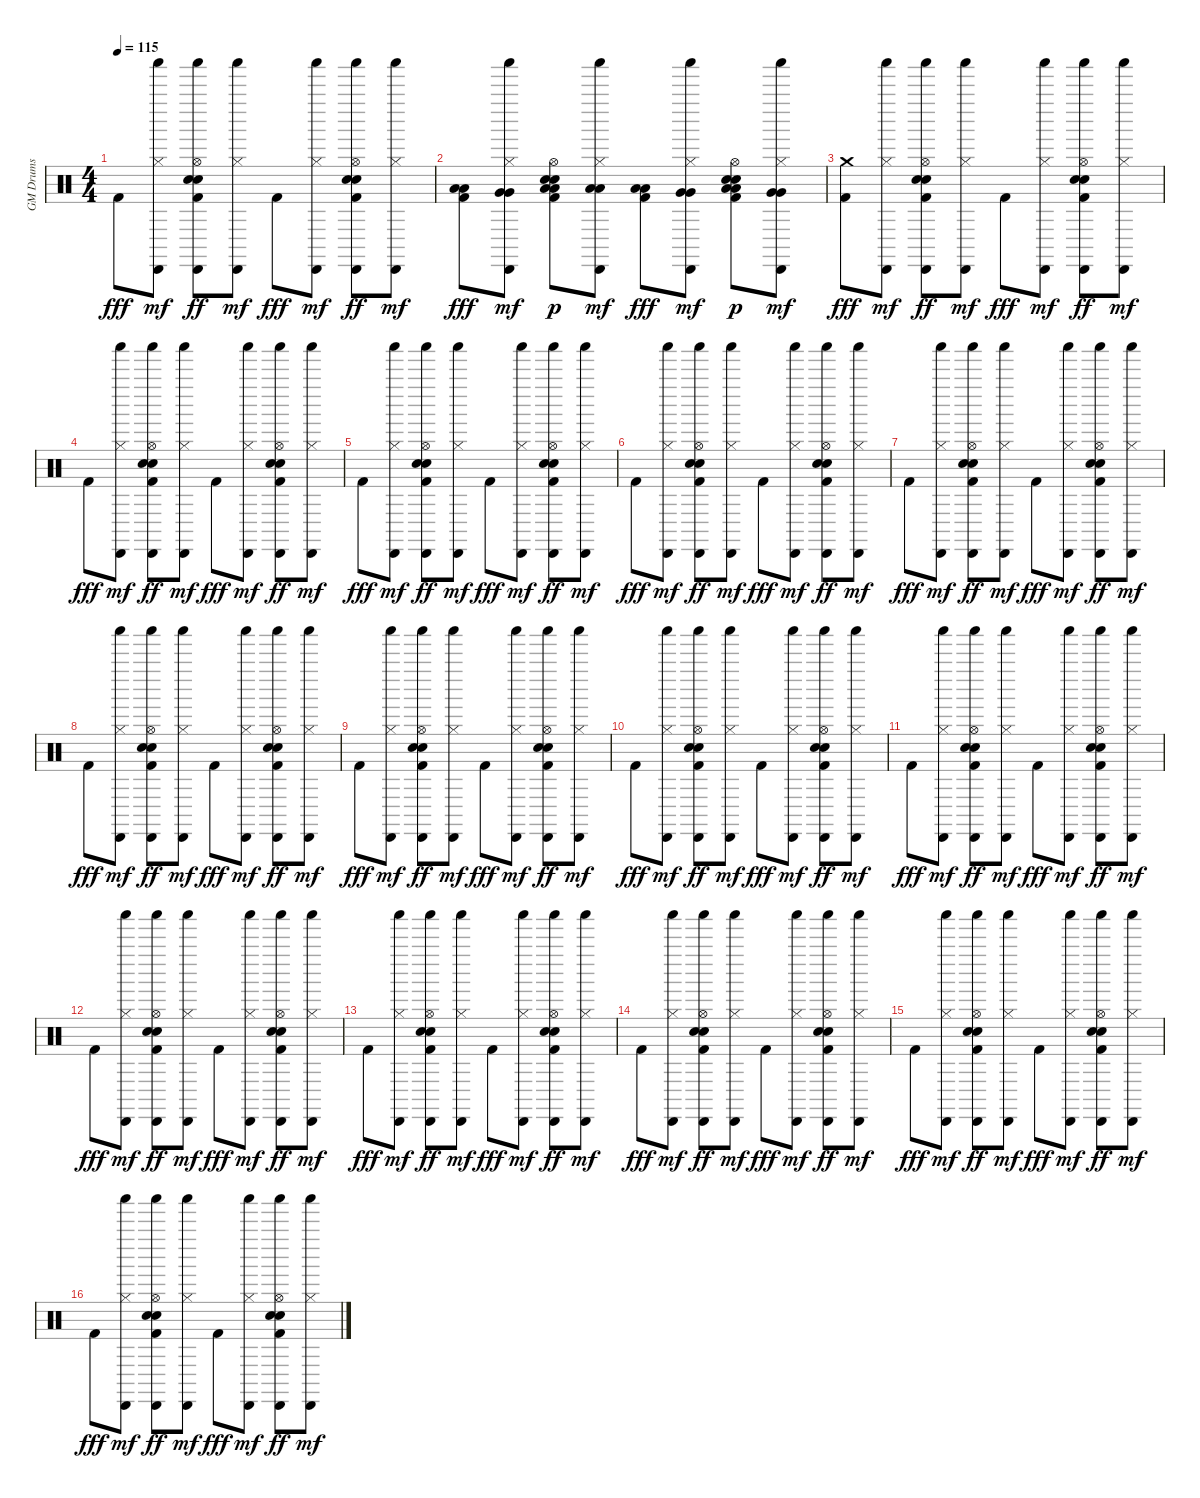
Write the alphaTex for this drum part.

\track ("GM Drums" "GM Drums") {instrument percussion}
\staff {score}
\articulation defaults
\ts (4 4)
\tempo 115
\clef neutral
\ks c "Kick (hit) 2".8{dy fff}
("Hi-Hat (closed)" "Cabasa (hit)" "Shaker (hit)").8{dy mf} ("Kick (hit) 2" "Snare (hit) 2" "Hand Clap (hit)" "Hi-Hat (open)" "Cabasa (hit)" "Shaker (hit)").8{dy ff} ("Hi-Hat (closed)" "Cabasa (hit)" "Shaker (hit)").8{dy mf} "Kick (hit) 2".8{dy fff} ("Hi-Hat (closed)" "Cabasa (hit)" "Shaker (hit)").8{dy mf} ("Kick (hit) 2" "Snare (hit) 2" "Hand Clap (hit)" "Hi-Hat (open)" "Cabasa (hit)" "Shaker (hit)").8{dy ff} ("Hi-Hat (closed)" "Cabasa (hit)" "Shaker (hit)").8{dy mf} |
("Kick (hit) 2" "Low Tom (hit)" "Low Tom (hit)").8{dy fff} ("Hi-Hat (closed)" "Very Low Tom (hit)" "Very Low Tom (hit)" "Cabasa (hit)" "Shaker (hit)").8{dy mf} ("Kick (hit) 2" "Snare (hit) 2" "Hand Clap (hit)" "Low Floor Tom (hit)" "Low Floor Tom (hit)" "Hi-Hat (open)").8{dy p} ("Hi-Hat (closed)" "Low Tom (hit)" "Low Tom (hit)" "Cabasa (hit)" "Shaker (hit)").8{dy mf} ("Kick (hit) 2" "Low Tom (hit)" "Low Tom (hit)").8{dy fff} ("Hi-Hat (closed)" "Very Low Tom (hit)" "Very Low Tom (hit)" "Cabasa (hit)" "Shaker (hit)").8{dy mf} ("Kick (hit) 2" "Snare (hit) 2" "Hand Clap (hit)" "Low Floor Tom (hit)" "Low Floor Tom (hit)" "Hi-Hat (open)").8{dy p} ("Hi-Hat (closed)" "Very Low Tom (hit)" "Very Low Tom (hit)" "Cabasa (hit)" "Shaker (hit)").8{dy mf} |
("Kick (hit) 2" "Crash medium (hit)").8{dy fff} ("Hi-Hat (closed)" "Cabasa (hit)" "Shaker (hit)").8{dy mf} ("Kick (hit) 2" "Snare (hit) 2" "Hand Clap (hit)" "Hi-Hat (open)" "Cabasa (hit)" "Shaker (hit)").8{dy ff} ("Hi-Hat (closed)" "Cabasa (hit)" "Shaker (hit)").8{dy mf} "Kick (hit) 2".8{dy fff} ("Hi-Hat (closed)" "Cabasa (hit)" "Shaker (hit)").8{dy mf} ("Kick (hit) 2" "Snare (hit) 2" "Hand Clap (hit)" "Hi-Hat (open)" "Cabasa (hit)" "Shaker (hit)").8{dy ff} ("Hi-Hat (closed)" "Cabasa (hit)" "Shaker (hit)").8{dy mf} |
"Kick (hit) 2".8{dy fff} ("Hi-Hat (closed)" "Cabasa (hit)" "Shaker (hit)").8{dy mf} ("Kick (hit) 2" "Snare (hit) 2" "Hand Clap (hit)" "Hi-Hat (open)" "Cabasa (hit)" "Shaker (hit)").8{dy ff} ("Hi-Hat (closed)" "Cabasa (hit)" "Shaker (hit)").8{dy mf} "Kick (hit) 2".8{dy fff} ("Hi-Hat (closed)" "Cabasa (hit)" "Shaker (hit)").8{dy mf} ("Kick (hit) 2" "Snare (hit) 2" "Hand Clap (hit)" "Hi-Hat (open)" "Cabasa (hit)" "Shaker (hit)").8{dy ff} ("Hi-Hat (closed)" "Cabasa (hit)" "Shaker (hit)").8{dy mf} |
"Kick (hit) 2".8{dy fff} ("Hi-Hat (closed)" "Cabasa (hit)" "Shaker (hit)").8{dy mf} ("Kick (hit) 2" "Snare (hit) 2" "Hand Clap (hit)" "Hi-Hat (open)" "Cabasa (hit)" "Shaker (hit)").8{dy ff} ("Hi-Hat (closed)" "Cabasa (hit)" "Shaker (hit)").8{dy mf} "Kick (hit) 2".8{dy fff} ("Hi-Hat (closed)" "Cabasa (hit)" "Shaker (hit)").8{dy mf} ("Kick (hit) 2" "Snare (hit) 2" "Hand Clap (hit)" "Hi-Hat (open)" "Cabasa (hit)" "Shaker (hit)").8{dy ff} ("Hi-Hat (closed)" "Cabasa (hit)" "Shaker (hit)").8{dy mf} |
"Kick (hit) 2".8{dy fff} ("Hi-Hat (closed)" "Cabasa (hit)" "Shaker (hit)").8{dy mf} ("Kick (hit) 2" "Snare (hit) 2" "Hand Clap (hit)" "Hi-Hat (open)" "Cabasa (hit)" "Shaker (hit)").8{dy ff} ("Hi-Hat (closed)" "Cabasa (hit)" "Shaker (hit)").8{dy mf} "Kick (hit) 2".8{dy fff} ("Hi-Hat (closed)" "Cabasa (hit)" "Shaker (hit)").8{dy mf} ("Kick (hit) 2" "Snare (hit) 2" "Hand Clap (hit)" "Hi-Hat (open)" "Cabasa (hit)" "Shaker (hit)").8{dy ff} ("Hi-Hat (closed)" "Cabasa (hit)" "Shaker (hit)").8{dy mf} |
"Kick (hit) 2".8{dy fff} ("Hi-Hat (closed)" "Cabasa (hit)" "Shaker (hit)").8{dy mf} ("Kick (hit) 2" "Snare (hit) 2" "Hand Clap (hit)" "Hi-Hat (open)" "Cabasa (hit)" "Shaker (hit)").8{dy ff} ("Hi-Hat (closed)" "Cabasa (hit)" "Shaker (hit)").8{dy mf} "Kick (hit) 2".8{dy fff} ("Hi-Hat (closed)" "Cabasa (hit)" "Shaker (hit)").8{dy mf} ("Kick (hit) 2" "Snare (hit) 2" "Hand Clap (hit)" "Hi-Hat (open)" "Cabasa (hit)" "Shaker (hit)").8{dy ff} ("Hi-Hat (closed)" "Cabasa (hit)" "Shaker (hit)").8{dy mf} |
"Kick (hit) 2".8{dy fff} ("Hi-Hat (closed)" "Cabasa (hit)" "Shaker (hit)").8{dy mf} ("Kick (hit) 2" "Snare (hit) 2" "Hand Clap (hit)" "Hi-Hat (open)" "Cabasa (hit)" "Shaker (hit)").8{dy ff} ("Hi-Hat (closed)" "Cabasa (hit)" "Shaker (hit)").8{dy mf} "Kick (hit) 2".8{dy fff} ("Hi-Hat (closed)" "Cabasa (hit)" "Shaker (hit)").8{dy mf} ("Kick (hit) 2" "Snare (hit) 2" "Hand Clap (hit)" "Hi-Hat (open)" "Cabasa (hit)" "Shaker (hit)").8{dy ff} ("Hi-Hat (closed)" "Cabasa (hit)" "Shaker (hit)").8{dy mf} |
"Kick (hit) 2".8{dy fff} ("Hi-Hat (closed)" "Cabasa (hit)" "Shaker (hit)").8{dy mf} ("Kick (hit) 2" "Snare (hit) 2" "Hand Clap (hit)" "Hi-Hat (open)" "Cabasa (hit)" "Shaker (hit)").8{dy ff} ("Hi-Hat (closed)" "Cabasa (hit)" "Shaker (hit)").8{dy mf} "Kick (hit) 2".8{dy fff} ("Hi-Hat (closed)" "Cabasa (hit)" "Shaker (hit)").8{dy mf} ("Kick (hit) 2" "Snare (hit) 2" "Hand Clap (hit)" "Hi-Hat (open)" "Cabasa (hit)" "Shaker (hit)").8{dy ff} ("Hi-Hat (closed)" "Cabasa (hit)" "Shaker (hit)").8{dy mf} |
"Kick (hit) 2".8{dy fff} ("Hi-Hat (closed)" "Cabasa (hit)" "Shaker (hit)").8{dy mf} ("Kick (hit) 2" "Snare (hit) 2" "Hand Clap (hit)" "Hi-Hat (open)" "Cabasa (hit)" "Shaker (hit)").8{dy ff} ("Hi-Hat (closed)" "Cabasa (hit)" "Shaker (hit)").8{dy mf} "Kick (hit) 2".8{dy fff} ("Hi-Hat (closed)" "Cabasa (hit)" "Shaker (hit)").8{dy mf} ("Kick (hit) 2" "Snare (hit) 2" "Hand Clap (hit)" "Hi-Hat (open)" "Cabasa (hit)" "Shaker (hit)").8{dy ff} ("Hi-Hat (closed)" "Cabasa (hit)" "Shaker (hit)").8{dy mf} |
"Kick (hit) 2".8{dy fff} ("Hi-Hat (closed)" "Cabasa (hit)" "Shaker (hit)").8{dy mf} ("Kick (hit) 2" "Snare (hit) 2" "Hand Clap (hit)" "Hi-Hat (open)" "Cabasa (hit)" "Shaker (hit)").8{dy ff} ("Hi-Hat (closed)" "Cabasa (hit)" "Shaker (hit)").8{dy mf} "Kick (hit) 2".8{dy fff} ("Hi-Hat (closed)" "Cabasa (hit)" "Shaker (hit)").8{dy mf} ("Kick (hit) 2" "Snare (hit) 2" "Hand Clap (hit)" "Hi-Hat (open)" "Cabasa (hit)" "Shaker (hit)").8{dy ff} ("Hi-Hat (closed)" "Cabasa (hit)" "Shaker (hit)").8{dy mf} |
"Kick (hit) 2".8{dy fff} ("Hi-Hat (closed)" "Cabasa (hit)" "Shaker (hit)").8{dy mf} ("Kick (hit) 2" "Snare (hit) 2" "Hand Clap (hit)" "Hi-Hat (open)" "Cabasa (hit)" "Shaker (hit)").8{dy ff} ("Hi-Hat (closed)" "Cabasa (hit)" "Shaker (hit)").8{dy mf} "Kick (hit) 2".8{dy fff} ("Hi-Hat (closed)" "Cabasa (hit)" "Shaker (hit)").8{dy mf} ("Kick (hit) 2" "Snare (hit) 2" "Hand Clap (hit)" "Hi-Hat (open)" "Cabasa (hit)" "Shaker (hit)").8{dy ff} ("Hi-Hat (closed)" "Cabasa (hit)" "Shaker (hit)").8{dy mf} |
"Kick (hit) 2".8{dy fff} ("Hi-Hat (closed)" "Cabasa (hit)" "Shaker (hit)").8{dy mf} ("Kick (hit) 2" "Snare (hit) 2" "Hand Clap (hit)" "Hi-Hat (open)" "Cabasa (hit)" "Shaker (hit)").8{dy ff} ("Hi-Hat (closed)" "Cabasa (hit)" "Shaker (hit)").8{dy mf} "Kick (hit) 2".8{dy fff} ("Hi-Hat (closed)" "Cabasa (hit)" "Shaker (hit)").8{dy mf} ("Kick (hit) 2" "Snare (hit) 2" "Hand Clap (hit)" "Hi-Hat (open)" "Cabasa (hit)" "Shaker (hit)").8{dy ff} ("Hi-Hat (closed)" "Cabasa (hit)" "Shaker (hit)").8{dy mf} |
"Kick (hit) 2".8{dy fff} ("Hi-Hat (closed)" "Cabasa (hit)" "Shaker (hit)").8{dy mf} ("Kick (hit) 2" "Snare (hit) 2" "Hand Clap (hit)" "Hi-Hat (open)" "Cabasa (hit)" "Shaker (hit)").8{dy ff} ("Hi-Hat (closed)" "Cabasa (hit)" "Shaker (hit)").8{dy mf} "Kick (hit) 2".8{dy fff} ("Hi-Hat (closed)" "Cabasa (hit)" "Shaker (hit)").8{dy mf} ("Kick (hit) 2" "Snare (hit) 2" "Hand Clap (hit)" "Hi-Hat (open)" "Cabasa (hit)" "Shaker (hit)").8{dy ff} ("Hi-Hat (closed)" "Cabasa (hit)" "Shaker (hit)").8{dy mf} |
"Kick (hit) 2".8{dy fff} ("Hi-Hat (closed)" "Cabasa (hit)" "Shaker (hit)").8{dy mf} ("Kick (hit) 2" "Snare (hit) 2" "Hand Clap (hit)" "Hi-Hat (open)" "Cabasa (hit)" "Shaker (hit)").8{dy ff} ("Hi-Hat (closed)" "Cabasa (hit)" "Shaker (hit)").8{dy mf} "Kick (hit) 2".8{dy fff} ("Hi-Hat (closed)" "Cabasa (hit)" "Shaker (hit)").8{dy mf} ("Kick (hit) 2" "Snare (hit) 2" "Hand Clap (hit)" "Hi-Hat (open)" "Cabasa (hit)" "Shaker (hit)").8{dy ff} ("Hi-Hat (closed)" "Cabasa (hit)" "Shaker (hit)").8{dy mf} |
"Kick (hit) 2".8{dy fff} ("Hi-Hat (closed)" "Cabasa (hit)" "Shaker (hit)").8{dy mf} ("Kick (hit) 2" "Snare (hit) 2" "Hand Clap (hit)" "Hi-Hat (open)" "Cabasa (hit)" "Shaker (hit)").8{dy ff} ("Hi-Hat (closed)" "Cabasa (hit)" "Shaker (hit)").8{dy mf} "Kick (hit) 2".8{dy fff} ("Hi-Hat (closed)" "Cabasa (hit)" "Shaker (hit)").8{dy mf} ("Kick (hit) 2" "Snare (hit) 2" "Hand Clap (hit)" "Hi-Hat (open)" "Cabasa (hit)" "Shaker (hit)").8{dy ff} ("Hi-Hat (closed)" "Cabasa (hit)" "Shaker (hit)").8{dy mf}
